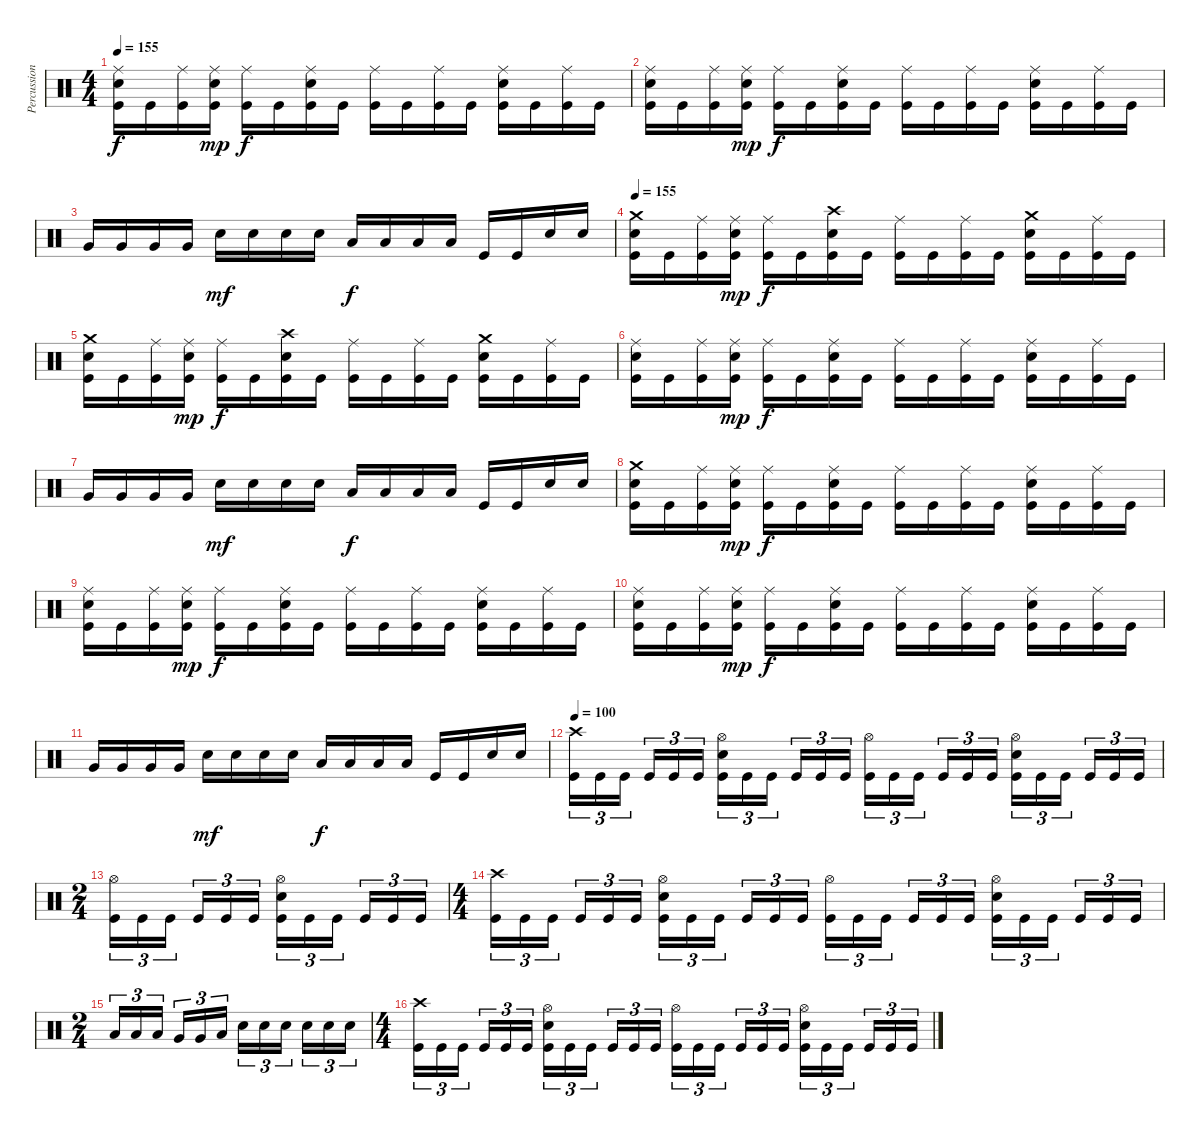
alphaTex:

\track ("Percussion" "Percussion") {instrument percussion}
\staff {score}
\articulation defaults
\ts (4 4)
\tempo 155
\clef neutral
\ks c
("Ride (middle)" "Kick (hit)" "Snare (hit) 2").16{dy f} "Kick (hit)".16 ("Ride (middle)" "Kick (hit)").16 ("Ride (middle)" "Kick (hit)" "Snare (hit) 2").16{dy mp} ("Ride (middle)" "Kick (hit)").16{dy f} "Kick (hit)".16 ("Ride (middle)" "Kick (hit)" "Snare (hit) 2").16 "Kick (hit)".16 ("Ride (middle)" "Kick (hit)").16 "Kick (hit)".16 ("Ride (middle)" "Kick (hit)").16 "Kick (hit)".16 ("Ride (middle)" "Kick (hit)" "Snare (hit) 2").16 "Kick (hit)".16 ("Ride (middle)" "Kick (hit)").16 "Kick (hit)".16 |
("Ride (middle)" "Kick (hit)" "Snare (hit) 2").16 "Kick (hit)".16 ("Ride (middle)" "Kick (hit)").16 ("Ride (middle)" "Kick (hit)" "Snare (hit) 2").16{dy mp} ("Ride (middle)" "Kick (hit)").16{dy f} "Kick (hit)".16 ("Ride (middle)" "Kick (hit)" "Snare (hit) 2").16 "Kick (hit)".16 ("Ride (middle)" "Kick (hit)").16 "Kick (hit)".16 ("Ride (middle)" "Kick (hit)").16 "Kick (hit)".16 ("Ride (middle)" "Kick (hit)" "Snare (hit) 2").16 "Kick (hit)".16 ("Ride (middle)" "Kick (hit)").16 "Kick (hit)".16 |
"Very Low Tom (hit)".16 "Very Low Tom (hit)".16 "Very Low Tom (hit)".16 "Very Low Tom (hit)".16 "Snare (hit) 2".16{dy mf} "Snare (hit) 2".16 "Snare (hit) 2".16 "Snare (hit) 2".16 "Low Floor Tom (hit)".16{dy f} "Low Floor Tom (hit)".16 "Low Floor Tom (hit)".16 "Low Floor Tom (hit)".16 "Kick (hit)".16 "Kick (hit)".16 "Snare (hit) 2".16 "Snare (hit) 2".16 |
\tempo 155
("Crash medium (hit)" "Kick (hit)" "Snare (hit) 2").16 "Kick (hit)".16 ("Ride (middle)" "Kick (hit)").16 ("Ride (middle)" "Kick (hit)" "Snare (hit) 2").16{dy mp} ("Ride (middle)" "Kick (hit)").16{dy f} "Kick (hit)".16 ("Crash high (hit)" "Kick (hit)" "Snare (hit) 2").16 "Kick (hit)".16 ("Ride (middle)" "Kick (hit)").16 "Kick (hit)".16 ("Ride (middle)" "Kick (hit)").16 "Kick (hit)".16 ("Crash medium (hit)" "Kick (hit)" "Snare (hit) 2").16 "Kick (hit)".16 ("Ride (middle)" "Kick (hit)").16 "Kick (hit)".16 |
("Crash medium (hit)" "Kick (hit)" "Snare (hit) 2").16 "Kick (hit)".16 ("Ride (middle)" "Kick (hit)").16 ("Ride (middle)" "Kick (hit)" "Snare (hit) 2").16{dy mp} ("Ride (middle)" "Kick (hit)").16{dy f} "Kick (hit)".16 ("Crash high (hit)" "Kick (hit)" "Snare (hit) 2").16 "Kick (hit)".16 ("Ride (middle)" "Kick (hit)").16 "Kick (hit)".16 ("Ride (middle)" "Kick (hit)").16 "Kick (hit)".16 ("Crash medium (hit)" "Kick (hit)" "Snare (hit) 2").16 "Kick (hit)".16 ("Ride (middle)" "Kick (hit)").16 "Kick (hit)".16 |
("Ride (middle)" "Kick (hit)" "Snare (hit) 2").16 "Kick (hit)".16 ("Ride (middle)" "Kick (hit)").16 ("Ride (middle)" "Kick (hit)" "Snare (hit) 2").16{dy mp} ("Ride (middle)" "Kick (hit)").16{dy f} "Kick (hit)".16 ("Ride (middle)" "Kick (hit)" "Snare (hit) 2").16 "Kick (hit)".16 ("Ride (middle)" "Kick (hit)").16 "Kick (hit)".16 ("Ride (middle)" "Kick (hit)").16 "Kick (hit)".16 ("Ride (middle)" "Kick (hit)" "Snare (hit) 2").16 "Kick (hit)".16 ("Ride (middle)" "Kick (hit)").16 "Kick (hit)".16 |
"Very Low Tom (hit)".16 "Very Low Tom (hit)".16 "Very Low Tom (hit)".16 "Very Low Tom (hit)".16 "Snare (hit) 2".16{dy mf} "Snare (hit) 2".16 "Snare (hit) 2".16 "Snare (hit) 2".16 "Low Floor Tom (hit)".16{dy f} "Low Floor Tom (hit)".16 "Low Floor Tom (hit)".16 "Low Floor Tom (hit)".16 "Kick (hit)".16 "Kick (hit)".16 "Snare (hit) 2".16 "Snare (hit) 2".16 |
("Crash medium (hit)" "Kick (hit)" "Snare (hit) 2").16 "Kick (hit)".16 ("Ride (middle)" "Kick (hit)").16 ("Ride (middle)" "Kick (hit)" "Snare (hit) 2").16{dy mp} ("Ride (middle)" "Kick (hit)").16{dy f} "Kick (hit)".16 ("Ride (middle)" "Kick (hit)" "Snare (hit) 2").16 "Kick (hit)".16 ("Ride (middle)" "Kick (hit)").16 "Kick (hit)".16 ("Ride (middle)" "Kick (hit)").16 "Kick (hit)".16 ("Ride (middle)" "Kick (hit)" "Snare (hit) 2").16 "Kick (hit)".16 ("Ride (middle)" "Kick (hit)").16 "Kick (hit)".16 |
("Ride (middle)" "Kick (hit)" "Snare (hit) 2").16 "Kick (hit)".16 ("Ride (middle)" "Kick (hit)").16 ("Ride (middle)" "Kick (hit)" "Snare (hit) 2").16{dy mp} ("Ride (middle)" "Kick (hit)").16{dy f} "Kick (hit)".16 ("Ride (middle)" "Kick (hit)" "Snare (hit) 2").16 "Kick (hit)".16 ("Ride (middle)" "Kick (hit)").16 "Kick (hit)".16 ("Ride (middle)" "Kick (hit)").16 "Kick (hit)".16 ("Ride (middle)" "Kick (hit)" "Snare (hit) 2").16 "Kick (hit)".16 ("Ride (middle)" "Kick (hit)").16 "Kick (hit)".16 |
("Ride (middle)" "Kick (hit)" "Snare (hit) 2").16 "Kick (hit)".16 ("Ride (middle)" "Kick (hit)").16 ("Ride (middle)" "Kick (hit)" "Snare (hit) 2").16{dy mp} ("Ride (middle)" "Kick (hit)").16{dy f} "Kick (hit)".16 ("Ride (middle)" "Kick (hit)" "Snare (hit) 2").16 "Kick (hit)".16 ("Ride (middle)" "Kick (hit)").16 "Kick (hit)".16 ("Ride (middle)" "Kick (hit)").16 "Kick (hit)".16 ("Ride (middle)" "Kick (hit)" "Snare (hit) 2").16 "Kick (hit)".16 ("Ride (middle)" "Kick (hit)").16 "Kick (hit)".16 |
"Very Low Tom (hit)".16 "Very Low Tom (hit)".16 "Very Low Tom (hit)".16 "Very Low Tom (hit)".16 "Snare (hit) 2".16{dy mf} "Snare (hit) 2".16 "Snare (hit) 2".16 "Snare (hit) 2".16 "Low Floor Tom (hit)".16{dy f} "Low Floor Tom (hit)".16 "Low Floor Tom (hit)".16 "Low Floor Tom (hit)".16 "Kick (hit)".16 "Kick (hit)".16 "Snare (hit) 2".16 "Snare (hit) 2".16 |
\tempo 100
("Crash high (hit)" "Kick (hit)").16{tu (3 2)} "Kick (hit)".16{tu (3 2)} "Kick (hit)".16{tu (3 2) beam splitsecondary} "Kick (hit)".16{tu (3 2)} "Kick (hit)".16{tu (3 2)} "Kick (hit)".16{tu (3 2)} ("Hi-Hat (open)" "Snare (hit) 2" "Kick (hit)").16{tu (3 2)} "Kick (hit)".16{tu (3 2)} "Kick (hit)".16{tu (3 2) beam splitsecondary} "Kick (hit)".16{tu (3 2)} "Kick (hit)".16{tu (3 2)} "Kick (hit)".16{tu (3 2)} ("Hi-Hat (open)" "Kick (hit)").16{tu (3 2)} "Kick (hit)".16{tu (3 2)} "Kick (hit)".16{tu (3 2) beam splitsecondary} "Kick (hit)".16{tu (3 2)} "Kick (hit)".16{tu (3 2)} "Kick (hit)".16{tu (3 2)} ("Hi-Hat (open)" "Snare (hit) 2" "Kick (hit)").16{tu (3 2)} "Kick (hit)".16{tu (3 2)} "Kick (hit)".16{tu (3 2) beam splitsecondary} "Kick (hit)".16{tu (3 2)} "Kick (hit)".16{tu (3 2)} "Kick (hit)".16{tu (3 2)} |
\ts (2 4)
("Hi-Hat (open)" "Kick (hit)").16{tu (3 2)} "Kick (hit)".16{tu (3 2)} "Kick (hit)".16{tu (3 2) beam splitsecondary} "Kick (hit)".16{tu (3 2)} "Kick (hit)".16{tu (3 2)} "Kick (hit)".16{tu (3 2)} ("Hi-Hat (open)" "Snare (hit) 2" "Kick (hit)").16{tu (3 2)} "Kick (hit)".16{tu (3 2)} "Kick (hit)".16{tu (3 2) beam splitsecondary} "Kick (hit)".16{tu (3 2)} "Kick (hit)".16{tu (3 2)} "Kick (hit)".16{tu (3 2)} |
\ts (4 4)
("Crash high (hit)" "Kick (hit)").16{tu (3 2)} "Kick (hit)".16{tu (3 2)} "Kick (hit)".16{tu (3 2) beam splitsecondary} "Kick (hit)".16{tu (3 2)} "Kick (hit)".16{tu (3 2)} "Kick (hit)".16{tu (3 2)} ("Hi-Hat (open)" "Snare (hit) 2" "Kick (hit)").16{tu (3 2)} "Kick (hit)".16{tu (3 2)} "Kick (hit)".16{tu (3 2) beam splitsecondary} "Kick (hit)".16{tu (3 2)} "Kick (hit)".16{tu (3 2)} "Kick (hit)".16{tu (3 2)} ("Hi-Hat (open)" "Kick (hit)").16{tu (3 2)} "Kick (hit)".16{tu (3 2)} "Kick (hit)".16{tu (3 2) beam splitsecondary} "Kick (hit)".16{tu (3 2)} "Kick (hit)".16{tu (3 2)} "Kick (hit)".16{tu (3 2)} ("Hi-Hat (open)" "Snare (hit) 2" "Kick (hit)").16{tu (3 2)} "Kick (hit)".16{tu (3 2)} "Kick (hit)".16{tu (3 2) beam splitsecondary} "Kick (hit)".16{tu (3 2)} "Kick (hit)".16{tu (3 2)} "Kick (hit)".16{tu (3 2)} |
\ts (2 4)
"Low Tom (hit)".16{tu (3 2)} "Low Tom (hit)".16{tu (3 2)} "Low Tom (hit)".16{tu (3 2) beam splitsecondary} "Very Low Tom (hit)".16{tu (3 2)} "Very Low Tom (hit)".16{tu (3 2)} "Low Floor Tom (hit)".16{tu (3 2)} "Snare (hit) 2".16{tu (3 2)} "Snare (hit) 2".16{tu (3 2)} "Snare (hit) 2".16{tu (3 2) beam splitsecondary} "Snare (hit) 2".16{tu (3 2)} "Snare (hit) 2".16{tu (3 2)} "Snare (hit) 2".16{tu (3 2)} |
\ts (4 4)
("Crash high (hit)" "Kick (hit)").16{tu (3 2)} "Kick (hit)".16{tu (3 2)} "Kick (hit)".16{tu (3 2) beam splitsecondary} "Kick (hit)".16{tu (3 2)} "Kick (hit)".16{tu (3 2)} "Kick (hit)".16{tu (3 2)} ("Hi-Hat (open)" "Snare (hit) 2" "Kick (hit)").16{tu (3 2)} "Kick (hit)".16{tu (3 2)} "Kick (hit)".16{tu (3 2) beam splitsecondary} "Kick (hit)".16{tu (3 2)} "Kick (hit)".16{tu (3 2)} "Kick (hit)".16{tu (3 2)} ("Hi-Hat (open)" "Kick (hit)").16{tu (3 2)} "Kick (hit)".16{tu (3 2)} "Kick (hit)".16{tu (3 2) beam splitsecondary} "Kick (hit)".16{tu (3 2)} "Kick (hit)".16{tu (3 2)} "Kick (hit)".16{tu (3 2)} ("Hi-Hat (open)" "Snare (hit) 2" "Kick (hit)").16{tu (3 2)} "Kick (hit)".16{tu (3 2)} "Kick (hit)".16{tu (3 2) beam splitsecondary} "Kick (hit)".16{tu (3 2)} "Kick (hit)".16{tu (3 2)} "Kick (hit)".16{tu (3 2)}
